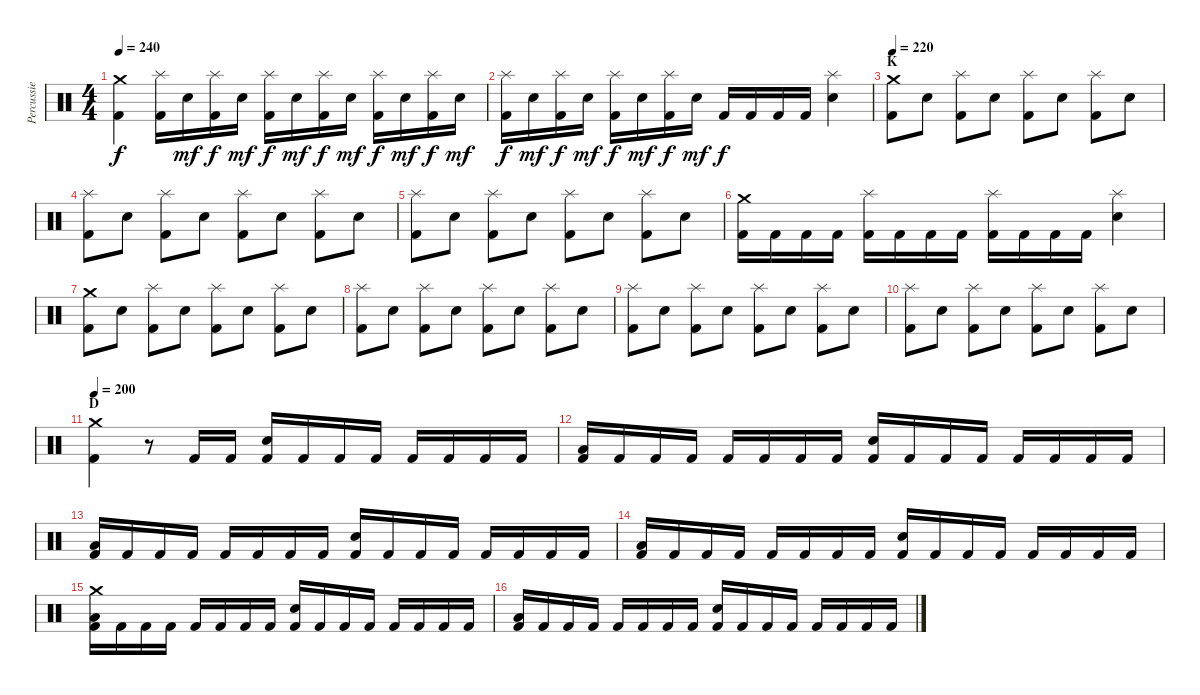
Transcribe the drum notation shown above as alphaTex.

\track ("Percussie" "Percussie") {instrument percussion}
\staff {score}
\articulation defaults
\ts (4 4)
\tempo 240
\clef neutral
\ks c
("Crash medium (hit)" "Kick (hit) 2").4{dy f} ("Splash (hit)" "Kick (hit) 2").16 "Electric Snare (hit)".16{dy mf} ("Splash (hit)" "Kick (hit) 2").16{dy f} "Electric Snare (hit)".16{dy mf} ("Splash (hit)" "Kick (hit) 2").16{dy f} "Electric Snare (hit)".16{dy mf} ("Splash (hit)" "Kick (hit) 2").16{dy f} "Electric Snare (hit)".16{dy mf} ("Splash (hit)" "Kick (hit) 2").16{dy f} "Electric Snare (hit)".16{dy mf} ("Splash (hit)" "Kick (hit) 2").16{dy f} "Electric Snare (hit)".16{dy mf} |
("Splash (hit)" "Kick (hit) 2").16{dy f} "Electric Snare (hit)".16{dy mf} ("Splash (hit)" "Kick (hit) 2").16{dy f} "Electric Snare (hit)".16{dy mf} ("Splash (hit)" "Kick (hit) 2").16{dy f} "Electric Snare (hit)".16{dy mf} ("Splash (hit)" "Kick (hit) 2").16{dy f} "Electric Snare (hit)".16{dy mf} "Kick (hit) 2".16{dy f} "Kick (hit) 2".16 "Kick (hit) 2".16 "Kick (hit) 2".16 ("Splash (hit)" "Electric Snare (hit)").4 |
\section ("" "K")
\tempo 220
("Crash medium (hit)" "Kick (hit) 2").8 "Electric Snare (hit)".8 ("Splash (hit)" "Kick (hit) 2").8 "Electric Snare (hit)".8 ("Splash (hit)" "Kick (hit) 2").8 "Electric Snare (hit)".8 ("Splash (hit)" "Kick (hit) 2").8 "Electric Snare (hit)".8 |
("Splash (hit)" "Kick (hit) 2").8 "Electric Snare (hit)".8 ("Splash (hit)" "Kick (hit) 2").8 "Electric Snare (hit)".8 ("Splash (hit)" "Kick (hit) 2").8 "Electric Snare (hit)".8 ("Splash (hit)" "Kick (hit) 2").8 "Electric Snare (hit)".8 |
("Splash (hit)" "Kick (hit) 2").8 "Electric Snare (hit)".8 ("Splash (hit)" "Kick (hit) 2").8 "Electric Snare (hit)".8 ("Splash (hit)" "Kick (hit) 2").8 "Electric Snare (hit)".8 ("Splash (hit)" "Kick (hit) 2").8 "Electric Snare (hit)".8 |
("Crash medium (hit)" "Kick (hit) 2").16 "Kick (hit) 2".16 "Kick (hit) 2".16 "Kick (hit) 2".16 ("Splash (hit)" "Kick (hit) 2").16 "Kick (hit) 2".16 "Kick (hit) 2".16 "Kick (hit) 2".16 ("Splash (hit)" "Kick (hit) 2").16 "Kick (hit) 2".16 "Kick (hit) 2".16 "Kick (hit) 2".16 ("Splash (hit)" "Electric Snare (hit)").4 |
("Crash medium (hit)" "Kick (hit) 2").8 "Electric Snare (hit)".8 ("Splash (hit)" "Kick (hit) 2").8 "Electric Snare (hit)".8 ("Splash (hit)" "Kick (hit) 2").8 "Electric Snare (hit)".8 ("Splash (hit)" "Kick (hit) 2").8 "Electric Snare (hit)".8 |
("Splash (hit)" "Kick (hit) 2").8 "Electric Snare (hit)".8 ("Splash (hit)" "Kick (hit) 2").8 "Electric Snare (hit)".8 ("Splash (hit)" "Kick (hit) 2").8 "Electric Snare (hit)".8 ("Splash (hit)" "Kick (hit) 2").8 "Electric Snare (hit)".8 |
("Splash (hit)" "Kick (hit) 2").8 "Electric Snare (hit)".8 ("Splash (hit)" "Kick (hit) 2").8 "Electric Snare (hit)".8 ("Splash (hit)" "Kick (hit) 2").8 "Electric Snare (hit)".8 ("Splash (hit)" "Kick (hit) 2").8 "Electric Snare (hit)".8 |
("Splash (hit)" "Kick (hit) 2").8 "Electric Snare (hit)".8 ("Splash (hit)" "Kick (hit) 2").8 "Electric Snare (hit)".8 ("Splash (hit)" "Kick (hit) 2").8 "Electric Snare (hit)".8 ("Splash (hit)" "Kick (hit) 2").8 "Electric Snare (hit)".8 |
\section ("" "D")
\tempo 200
("Crash medium (hit)" "Kick (hit) 2").4 r.8 "Kick (hit) 2".16 "Kick (hit) 2".16 ("Electric Snare (hit)" "Kick (hit) 2").16 "Kick (hit) 2".16 "Kick (hit) 2".16 "Kick (hit) 2".16 "Kick (hit) 2".16 "Kick (hit) 2".16 "Kick (hit) 2".16 "Kick (hit) 2".16 |
("Low Tom (hit)" "Kick (hit) 2").16 "Kick (hit) 2".16 "Kick (hit) 2".16 "Kick (hit) 2".16 "Kick (hit) 2".16 "Kick (hit) 2".16 "Kick (hit) 2".16 "Kick (hit) 2".16 ("Electric Snare (hit)" "Kick (hit) 2").16 "Kick (hit) 2".16 "Kick (hit) 2".16 "Kick (hit) 2".16 "Kick (hit) 2".16 "Kick (hit) 2".16 "Kick (hit) 2".16 "Kick (hit) 2".16 |
("Low Tom (hit)" "Kick (hit) 2").16 "Kick (hit) 2".16 "Kick (hit) 2".16 "Kick (hit) 2".16 "Kick (hit) 2".16 "Kick (hit) 2".16 "Kick (hit) 2".16 "Kick (hit) 2".16 ("Electric Snare (hit)" "Kick (hit) 2").16 "Kick (hit) 2".16 "Kick (hit) 2".16 "Kick (hit) 2".16 "Kick (hit) 2".16 "Kick (hit) 2".16 "Kick (hit) 2".16 "Kick (hit) 2".16 |
("Low Tom (hit)" "Kick (hit) 2").16 "Kick (hit) 2".16 "Kick (hit) 2".16 "Kick (hit) 2".16 "Kick (hit) 2".16 "Kick (hit) 2".16 "Kick (hit) 2".16 "Kick (hit) 2".16 ("Electric Snare (hit)" "Kick (hit) 2").16 "Kick (hit) 2".16 "Kick (hit) 2".16 "Kick (hit) 2".16 "Kick (hit) 2".16 "Kick (hit) 2".16 "Kick (hit) 2".16 "Kick (hit) 2".16 |
("Crash medium (hit)" "Low Tom (hit)" "Kick (hit) 2").16 "Kick (hit) 2".16 "Kick (hit) 2".16 "Kick (hit) 2".16 "Kick (hit) 2".16 "Kick (hit) 2".16 "Kick (hit) 2".16 "Kick (hit) 2".16 ("Electric Snare (hit)" "Kick (hit) 2").16 "Kick (hit) 2".16 "Kick (hit) 2".16 "Kick (hit) 2".16 "Kick (hit) 2".16 "Kick (hit) 2".16 "Kick (hit) 2".16 "Kick (hit) 2".16 |
("Low Tom (hit)" "Kick (hit) 2").16 "Kick (hit) 2".16 "Kick (hit) 2".16 "Kick (hit) 2".16 "Kick (hit) 2".16 "Kick (hit) 2".16 "Kick (hit) 2".16 "Kick (hit) 2".16 ("Electric Snare (hit)" "Kick (hit) 2").16 "Kick (hit) 2".16 "Kick (hit) 2".16 "Kick (hit) 2".16 "Kick (hit) 2".16 "Kick (hit) 2".16 "Kick (hit) 2".16 "Kick (hit) 2".16
